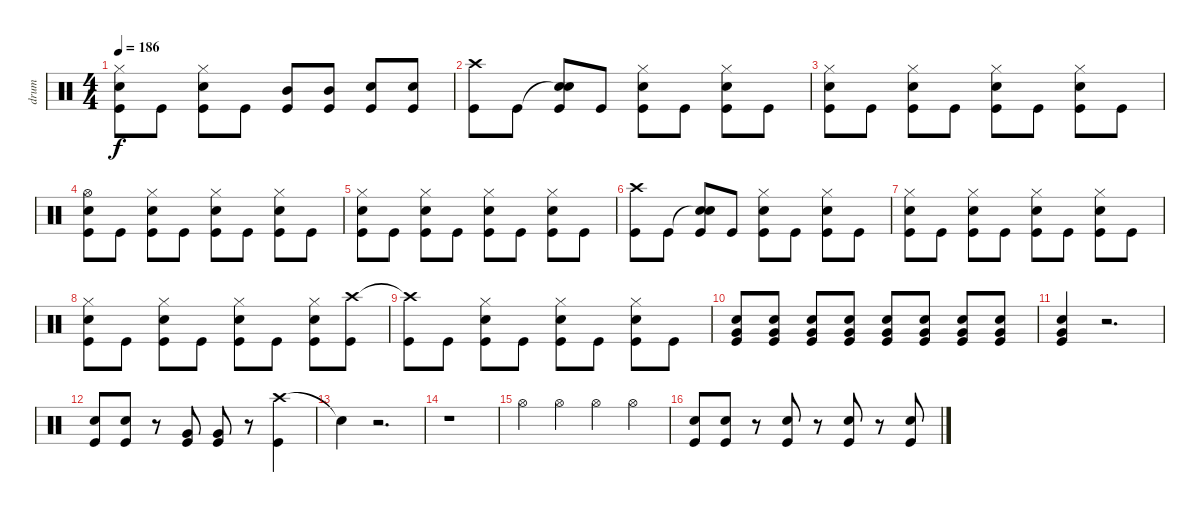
\track ("drum" "drum") {instrument percussion}
\staff {score}
\articulation defaults
\ts (4 4)
\tempo 186
\clef neutral
\ks c
("Hi-Hat (closed)" "Snare (hit) 2" "Kick (hit)").8{dy f} "Kick (hit)".8 ("Hi-Hat (closed)" "Snare (hit) 2" "Kick (hit)").8 "Kick (hit)".8 ("Mid Tom (hit)" "Kick (hit)").8 ("Mid Tom (hit)" "Kick (hit)").8 ("Snare (hit) 2" "Kick (hit)").8 ("Snare (hit) 2" "Kick (hit)").8 |
("Crash high (hit)" "Kick (hit)").8 "Kick (hit)".8 ("Snare (hit)"{t} "Snare (hit) 2" "Kick (hit)").8 "Kick (hit)".8 ("Hi-Hat (closed)" "Snare (hit) 2" "Kick (hit)").8 "Kick (hit)".8 ("Hi-Hat (closed)" "Snare (hit) 2" "Kick (hit)").8 "Kick (hit)".8 |
("Hi-Hat (closed)" "Snare (hit) 2" "Kick (hit)").8 "Kick (hit)".8 ("Hi-Hat (closed)" "Snare (hit) 2" "Kick (hit)").8 "Kick (hit)".8 ("Hi-Hat (closed)" "Snare (hit) 2" "Kick (hit)").8 "Kick (hit)".8 ("Hi-Hat (closed)" "Snare (hit) 2" "Kick (hit)").8 "Kick (hit)".8 |
("Hi-Hat (open)" "Snare (hit) 2" "Kick (hit)").8 "Kick (hit)".8 ("Hi-Hat (closed)" "Snare (hit) 2" "Kick (hit)").8 "Kick (hit)".8 ("Hi-Hat (closed)" "Snare (hit) 2" "Kick (hit)").8 "Kick (hit)".8 ("Hi-Hat (closed)" "Snare (hit) 2" "Kick (hit)").8 "Kick (hit)".8 |
("Hi-Hat (closed)" "Snare (hit) 2" "Kick (hit)").8 "Kick (hit)".8 ("Hi-Hat (closed)" "Snare (hit) 2" "Kick (hit)").8 "Kick (hit)".8 ("Hi-Hat (closed)" "Snare (hit) 2" "Kick (hit)").8 "Kick (hit)".8 ("Hi-Hat (closed)" "Snare (hit) 2" "Kick (hit)").8 "Kick (hit)".8 |
("Crash high (hit)" "Kick (hit)").8 "Kick (hit)".8 ("Snare (hit)"{t} "Snare (hit) 2" "Kick (hit)").8 "Kick (hit)".8 ("Hi-Hat (closed)" "Snare (hit) 2" "Kick (hit)").8 "Kick (hit)".8 ("Hi-Hat (closed)" "Snare (hit) 2" "Kick (hit)").8 "Kick (hit)".8 |
("Hi-Hat (closed)" "Snare (hit) 2" "Kick (hit)").8 "Kick (hit)".8 ("Hi-Hat (closed)" "Snare (hit) 2" "Kick (hit)").8 "Kick (hit)".8 ("Hi-Hat (closed)" "Snare (hit) 2" "Kick (hit)").8 "Kick (hit)".8 ("Hi-Hat (closed)" "Snare (hit) 2" "Kick (hit)").8 "Kick (hit)".8 |
("Hi-Hat (closed)" "Snare (hit) 2" "Kick (hit)").8 "Kick (hit)".8 ("Hi-Hat (closed)" "Snare (hit) 2" "Kick (hit)").8 "Kick (hit)".8 ("Hi-Hat (closed)" "Snare (hit) 2" "Kick (hit)").8 "Kick (hit)".8 ("Hi-Hat (closed)" "Snare (hit) 2" "Kick (hit)").8 ("Crash high (hit)" "Kick (hit)").8 |
("Crash high (hit)"{t} "Kick (hit)").8 "Kick (hit)".8 ("Hi-Hat (closed)" "Snare (hit) 2" "Kick (hit)").8 "Kick (hit)".8 ("Hi-Hat (closed)" "Snare (hit) 2" "Kick (hit)").8 "Kick (hit)".8 ("Hi-Hat (closed)" "Snare (hit) 2" "Kick (hit)").8 "Kick (hit)".8 |
("Snare (hit) 2" "Very Low Tom (hit)" "Kick (hit)").8 ("Snare (hit) 2" "Very Low Tom (hit)" "Kick (hit)").8 ("Snare (hit) 2" "Very Low Tom (hit)" "Kick (hit)").8 ("Snare (hit) 2" "Very Low Tom (hit)" "Kick (hit)").8 ("Snare (hit) 2" "Very Low Tom (hit)" "Kick (hit)").8 ("Snare (hit) 2" "Very Low Tom (hit)" "Kick (hit)").8 ("Snare (hit) 2" "Very Low Tom (hit)" "Kick (hit)").8 ("Snare (hit) 2" "Very Low Tom (hit)" "Kick (hit)").8 |
("Snare (hit) 2" "Very Low Tom (hit)" "Kick (hit)").4 r.2{d} |
("Snare (hit) 2" "Kick (hit)").8 ("Snare (hit) 2" "Kick (hit)").8 r.8 ("Very Low Tom (hit)" "Kick (hit)").8 ("Very Low Tom (hit)" "Kick (hit)").8 r.8 ("Crash high (hit)" "Kick (hit)").4 |
"Snare (hit)"{t}.4 r.2{d} |
r.1 |
"Hi-Hat (open)".4 "Hi-Hat (open)".4 "Hi-Hat (open)".4 "Hi-Hat (open)".4 |
("Snare (hit) 2" "Kick (hit)").8 ("Snare (hit) 2" "Kick (hit)").8 r.8 ("Snare (hit) 2" "Kick (hit)").8 r.8 ("Snare (hit) 2" "Kick (hit)").8 r.8 ("Snare (hit) 2" "Kick (hit)").8
